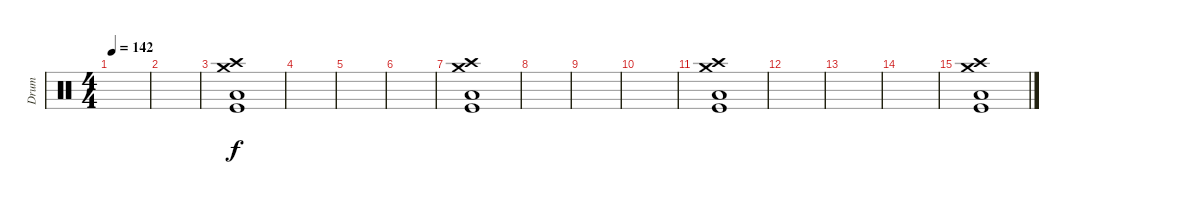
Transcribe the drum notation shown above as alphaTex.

\track ("Drum" "Drum") {instrument percussion}
\staff {score}
\articulation defaults
\ts (4 4)
\tempo 142
\clef neutral
\ks c
|
|
("Crash high (hit)" "Crash medium (hit)" "Low Floor Tom (hit)" "Kick (hit)").1 |
|
|
|
("Crash high (hit)" "Crash medium (hit)" "Low Floor Tom (hit)" "Kick (hit)").1 |
|
|
|
("Crash high (hit)" "Crash medium (hit)" "Low Floor Tom (hit)" "Kick (hit)").1 |
|
|
|
("Crash high (hit)" "Crash medium (hit)" "Low Floor Tom (hit)" "Kick (hit)").1
